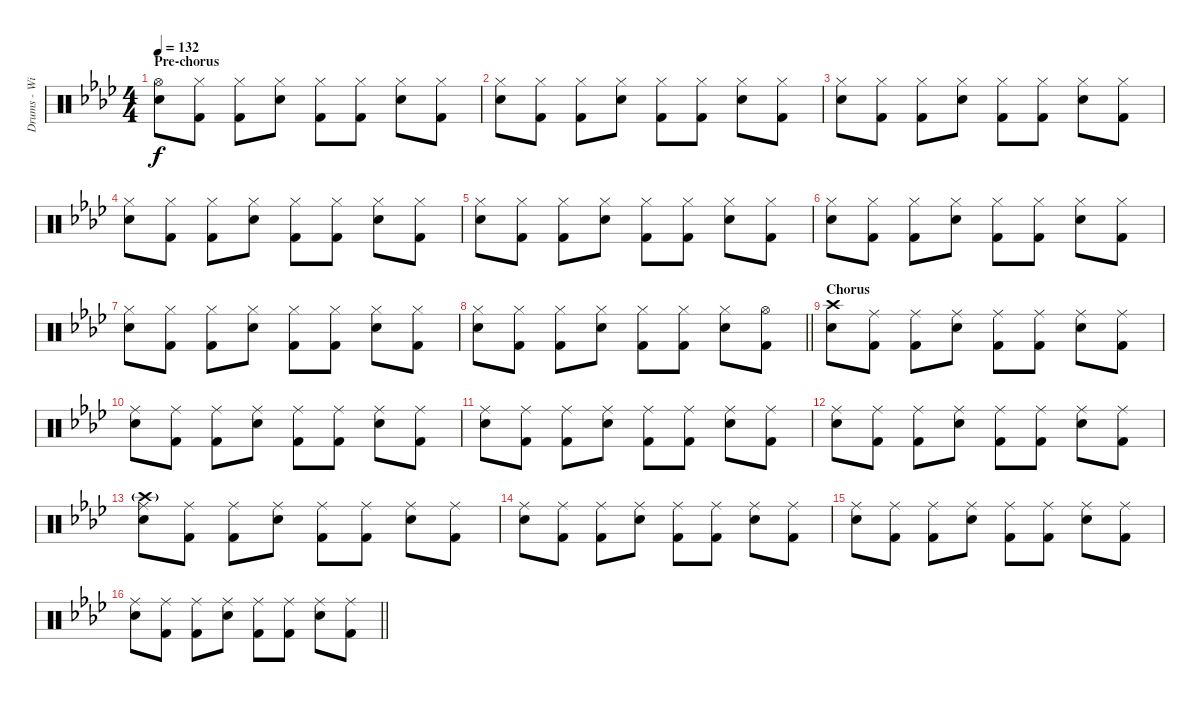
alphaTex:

\track ("Drums - Will" "Drums - Wi") {instrument percussion}
\staff {score}
\articulation defaults
\ts (4 4)
\section ("" "Pre-chorus")
\tempo 132
\clef neutral
\ks ab
("Hi-Hat (open)" "Electric Snare (hit)").8{dy f} ("Hi-Hat (closed)" "Kick (hit) 2").8 ("Hi-Hat (closed)" "Kick (hit) 2").8 ("Hi-Hat (closed)" "Electric Snare (hit)").8 ("Hi-Hat (closed)" "Kick (hit) 2").8 ("Hi-Hat (closed)" "Kick (hit) 2").8 ("Hi-Hat (closed)" "Electric Snare (hit)").8 ("Hi-Hat (closed)" "Kick (hit) 2").8 |
("Hi-Hat (closed)" "Electric Snare (hit)").8 ("Hi-Hat (closed)" "Kick (hit) 2").8 ("Hi-Hat (closed)" "Kick (hit) 2").8 ("Hi-Hat (closed)" "Electric Snare (hit)").8 ("Hi-Hat (closed)" "Kick (hit) 2").8 ("Hi-Hat (closed)" "Kick (hit) 2").8 ("Hi-Hat (closed)" "Electric Snare (hit)").8 ("Hi-Hat (closed)" "Kick (hit) 2").8 |
("Hi-Hat (closed)" "Electric Snare (hit)").8 ("Hi-Hat (closed)" "Kick (hit) 2").8 ("Hi-Hat (closed)" "Kick (hit) 2").8 ("Hi-Hat (closed)" "Electric Snare (hit)").8 ("Hi-Hat (closed)" "Kick (hit) 2").8 ("Hi-Hat (closed)" "Kick (hit) 2").8 ("Hi-Hat (closed)" "Electric Snare (hit)").8 ("Hi-Hat (closed)" "Kick (hit) 2").8 |
("Hi-Hat (closed)" "Electric Snare (hit)").8 ("Hi-Hat (closed)" "Kick (hit) 2").8 ("Hi-Hat (closed)" "Kick (hit) 2").8 ("Hi-Hat (closed)" "Electric Snare (hit)").8 ("Hi-Hat (closed)" "Kick (hit) 2").8 ("Hi-Hat (closed)" "Kick (hit) 2").8 ("Hi-Hat (closed)" "Electric Snare (hit)").8 ("Hi-Hat (closed)" "Kick (hit) 2").8 |
("Hi-Hat (closed)" "Electric Snare (hit)").8 ("Hi-Hat (closed)" "Kick (hit) 2").8 ("Hi-Hat (closed)" "Kick (hit) 2").8 ("Hi-Hat (closed)" "Electric Snare (hit)").8 ("Hi-Hat (closed)" "Kick (hit) 2").8 ("Hi-Hat (closed)" "Kick (hit) 2").8 ("Hi-Hat (closed)" "Electric Snare (hit)").8 ("Hi-Hat (closed)" "Kick (hit) 2").8 |
("Hi-Hat (closed)" "Electric Snare (hit)").8 ("Hi-Hat (closed)" "Kick (hit) 2").8 ("Hi-Hat (closed)" "Kick (hit) 2").8 ("Hi-Hat (closed)" "Electric Snare (hit)").8 ("Hi-Hat (closed)" "Kick (hit) 2").8 ("Hi-Hat (closed)" "Kick (hit) 2").8 ("Hi-Hat (closed)" "Electric Snare (hit)").8 ("Hi-Hat (closed)" "Kick (hit) 2").8 |
("Hi-Hat (closed)" "Electric Snare (hit)").8 ("Hi-Hat (closed)" "Kick (hit) 2").8 ("Hi-Hat (closed)" "Kick (hit) 2").8 ("Hi-Hat (closed)" "Electric Snare (hit)").8 ("Hi-Hat (closed)" "Kick (hit) 2").8 ("Hi-Hat (closed)" "Kick (hit) 2").8 ("Hi-Hat (closed)" "Electric Snare (hit)").8 ("Hi-Hat (closed)" "Kick (hit) 2").8 |
\barLineRight lightlight
("Hi-Hat (closed)" "Electric Snare (hit)").8 ("Hi-Hat (closed)" "Kick (hit) 2").8 ("Hi-Hat (closed)" "Kick (hit) 2").8 ("Hi-Hat (closed)" "Electric Snare (hit)").8 ("Hi-Hat (closed)" "Kick (hit) 2").8 ("Hi-Hat (closed)" "Kick (hit) 2").8 ("Hi-Hat (closed)" "Electric Snare (hit)").8 ("Hi-Hat (open)" "Kick (hit) 2").8 |
\section ("" "Chorus")
("Crash high (hit)" "Electric Snare (hit)").8 ("Ride (middle)" "Kick (hit) 2").8 ("Ride (middle)" "Kick (hit) 2").8 ("Ride (middle)" "Electric Snare (hit)").8 ("Ride (middle)" "Kick (hit) 2").8 ("Ride (middle)" "Kick (hit) 2").8 ("Ride (middle)" "Electric Snare (hit)").8 ("Ride (middle)" "Kick (hit) 2").8 |
("Ride (middle)" "Electric Snare (hit)").8 ("Ride (middle)" "Kick (hit) 2").8 ("Ride (middle)" "Kick (hit) 2").8 ("Ride (middle)" "Electric Snare (hit)").8 ("Ride (middle)" "Kick (hit) 2").8 ("Ride (middle)" "Kick (hit) 2").8 ("Ride (middle)" "Electric Snare (hit)").8 ("Ride (middle)" "Kick (hit) 2").8 |
("Ride (middle)" "Electric Snare (hit)").8 ("Ride (middle)" "Kick (hit) 2").8 ("Ride (middle)" "Kick (hit) 2").8 ("Ride (middle)" "Electric Snare (hit)").8 ("Ride (middle)" "Kick (hit) 2").8 ("Ride (middle)" "Kick (hit) 2").8 ("Ride (middle)" "Electric Snare (hit)").8 ("Ride (middle)" "Kick (hit) 2").8 |
("Ride (middle)" "Electric Snare (hit)").8 ("Ride (middle)" "Kick (hit) 2").8 ("Ride (middle)" "Kick (hit) 2").8 ("Ride (middle)" "Electric Snare (hit)").8 ("Ride (middle)" "Kick (hit) 2").8 ("Ride (middle)" "Kick (hit) 2").8 ("Ride (middle)" "Electric Snare (hit)").8 ("Ride (middle)" "Kick (hit) 2").8 |
("Crash high (hit)"{g} "Ride (middle)" "Electric Snare (hit)").8 ("Ride (middle)" "Kick (hit) 2").8 ("Ride (middle)" "Kick (hit) 2").8 ("Ride (middle)" "Electric Snare (hit)").8 ("Ride (middle)" "Kick (hit) 2").8 ("Ride (middle)" "Kick (hit) 2").8 ("Ride (middle)" "Electric Snare (hit)").8 ("Ride (middle)" "Kick (hit) 2").8 |
("Ride (middle)" "Electric Snare (hit)").8 ("Ride (middle)" "Kick (hit) 2").8 ("Ride (middle)" "Kick (hit) 2").8 ("Ride (middle)" "Electric Snare (hit)").8 ("Ride (middle)" "Kick (hit) 2").8 ("Ride (middle)" "Kick (hit) 2").8 ("Ride (middle)" "Electric Snare (hit)").8 ("Ride (middle)" "Kick (hit) 2").8 |
("Ride (middle)" "Electric Snare (hit)").8 ("Ride (middle)" "Kick (hit) 2").8 ("Ride (middle)" "Kick (hit) 2").8 ("Ride (middle)" "Electric Snare (hit)").8 ("Ride (middle)" "Kick (hit) 2").8 ("Ride (middle)" "Kick (hit) 2").8 ("Ride (middle)" "Electric Snare (hit)").8 ("Ride (middle)" "Kick (hit) 2").8 |
\barLineRight lightlight
("Ride (middle)" "Electric Snare (hit)").8 ("Ride (middle)" "Kick (hit) 2").8 ("Ride (middle)" "Kick (hit) 2").8 ("Ride (middle)" "Electric Snare (hit)").8 ("Ride (middle)" "Kick (hit) 2").8 ("Ride (middle)" "Kick (hit) 2").8 ("Ride (middle)" "Electric Snare (hit)").8 ("Ride (middle)" "Kick (hit) 2").8
